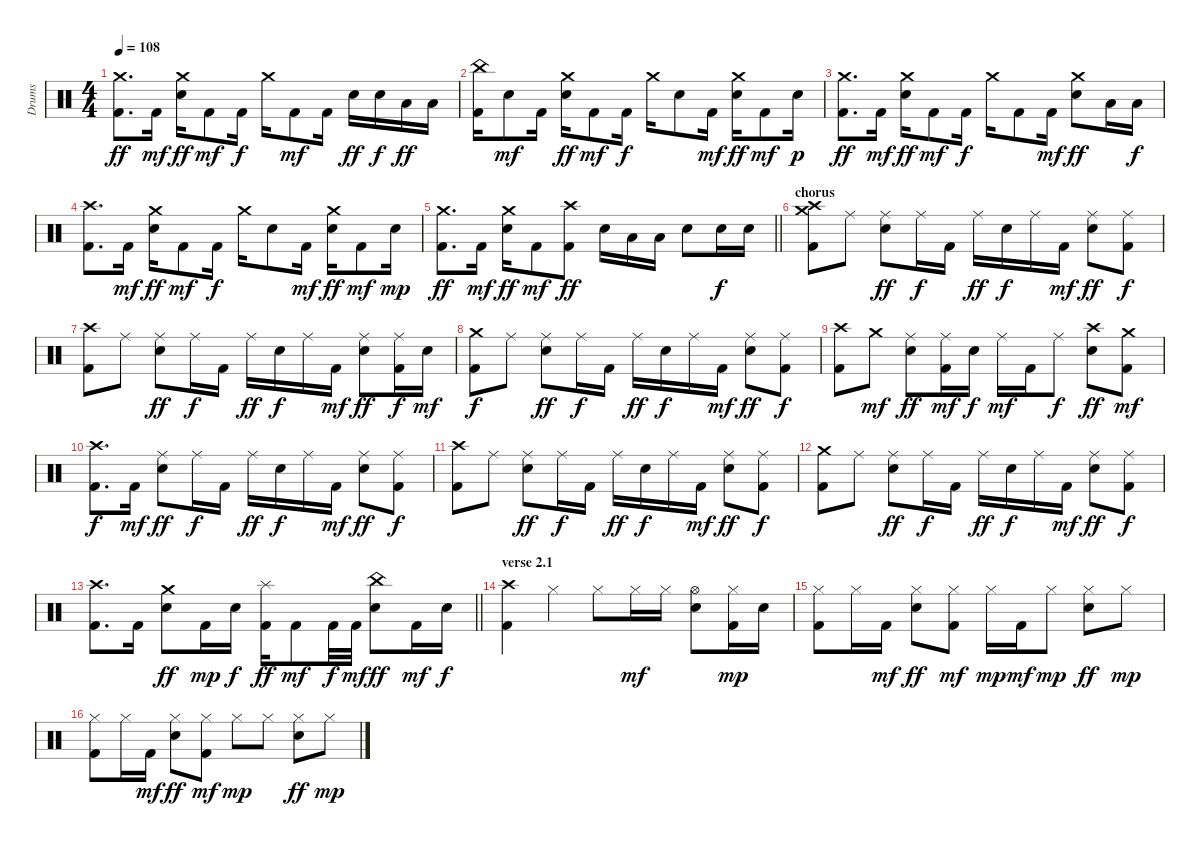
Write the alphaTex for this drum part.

\track ("Drums" "Drums") {instrument percussion}
\staff {score}
\articulation defaults
\ts (4 4)
\tempo 108
\clef neutral
\ks c
("Crash medium (hit)" "Kick (hit) 2").8{d dy ff} "Kick (hit) 2".16{dy mf} ("Crash medium (hit)" "Electric Snare (hit)").16{dy ff} "Kick (hit) 2".8{dy mf} "Kick (hit) 2".16{dy f} "Crash medium (hit)".16 "Kick (hit) 2".8{dy mf} "Kick (hit) 2".16 "Electric Snare (hit)".16{dy ff} "Electric Snare (hit)".16{dy f} "Low Tom (hit)".16{dy ff} "Low Tom (hit)".16 |
("China (hit)" "Kick (hit) 2").16 "Electric Snare (hit)".8{dy mf} "Kick (hit) 2".16 ("Crash medium (hit)" "Electric Snare (hit)").16{dy ff} "Kick (hit) 2".8{dy mf} "Kick (hit) 2".16{dy f} "Crash medium (hit)".16 "Electric Snare (hit)".8 "Kick (hit) 2".16{dy mf} ("Crash medium (hit)" "Electric Snare (hit)").16{dy ff} "Kick (hit) 2".8{dy mf} "Electric Snare (hit)".16{dy p} |
("Crash medium (hit)" "Kick (hit) 2").8{d dy ff} "Kick (hit) 2".16{dy mf} ("Crash medium (hit)" "Electric Snare (hit)").16{dy ff} "Kick (hit) 2".8{dy mf} "Kick (hit) 2".16{dy f} "Crash medium (hit)".16 "Kick (hit) 2".8 "Kick (hit) 2".16{dy mf} ("Crash medium (hit)" "Electric Snare (hit)").8{dy ff} "Low Tom (hit)".16 "Low Tom (hit)".16{dy f} |
("Crash high (hit)" "Kick (hit) 2").8{d} "Kick (hit) 2".16{dy mf} ("Crash medium (hit)" "Electric Snare (hit)").16{dy ff} "Kick (hit) 2".8{dy mf} "Kick (hit) 2".16{dy f} "Crash medium (hit)".16 "Electric Snare (hit)".8 "Kick (hit) 2".16{dy mf} ("Crash medium (hit)" "Electric Snare (hit)").16{dy ff} "Kick (hit) 2".8{dy mf} "Electric Snare (hit)".16{dy mp} |
\barLineRight lightlight
("Crash medium (hit)" "Kick (hit) 2").8{d dy ff} "Kick (hit) 2".16{dy mf} ("Crash medium (hit)" "Electric Snare (hit)").16{dy ff} "Kick (hit) 2".8{dy mf} ("Crash high (hit)" "Kick (hit) 2").8{dy ff} "Electric Snare (hit)".16 "Low Tom (hit)".16 "Low Tom (hit)".16 "Electric Snare (hit)".8 "Electric Snare (hit)".16{dy f} "Electric Snare (hit)".16 |
\section ("" "chorus")
("Crash medium (hit)" "Crash high (hit)" "Kick (hit) 2").8 "Ride (middle)".8 ("Ride (middle)" "Electric Snare (hit)").8{dy ff} "Ride (middle)".16{dy f} "Kick (hit) 2".16 "Ride (middle)".16{dy ff} "Electric Snare (hit)".16{dy f} "Ride (middle)".16 "Kick (hit) 2".16{dy mf} ("Ride (middle)" "Electric Snare (hit)").8{dy ff} ("Ride (middle)" "Kick (hit) 2").8{dy f} |
("Crash high (hit)" "Kick (hit) 2").8 "Ride (middle)".8 ("Ride (middle)" "Electric Snare (hit)").8{dy ff} "Ride (middle)".16{dy f} "Kick (hit) 2".16 "Ride (middle)".16{dy ff} "Electric Snare (hit)".16{dy f} "Ride (middle)".16 "Kick (hit) 2".16{dy mf} ("Ride (middle)" "Electric Snare (hit)").8{dy ff} ("Ride (middle)" "Kick (hit) 2").16{dy f} "Electric Snare (hit)".16{dy mf} |
("Crash medium (hit)" "Kick (hit) 2").8{dy f} "Ride (middle)".8 ("Ride (middle)" "Electric Snare (hit)").8{dy ff} "Ride (middle)".16{dy f} "Kick (hit) 2".16 "Ride (middle)".16{dy ff} "Electric Snare (hit)".16{dy f} "Ride (middle)".16 "Kick (hit) 2".16{dy mf} ("Ride (middle)" "Electric Snare (hit)").8{dy ff} ("Ride (middle)" "Kick (hit) 2").8{dy f} |
("Crash high (hit)" "Kick (hit) 2").8 "Crash medium (hit)".8{dy mf} ("Ride (middle)" "Electric Snare (hit)").8{dy ff} ("Ride (middle)" "Kick (hit) 2").16{dy mf} "Electric Snare (hit)".16{dy f} "Ride (middle)".16{dy mf} "Kick (hit) 2".16 "Ride (middle)".8{dy f} ("Crash high (hit)" "Electric Snare (hit)").8{dy ff} ("Crash medium (hit)" "Kick (hit) 2").8{dy mf} |
("Crash high (hit)" "Kick (hit) 2").8{d dy f} "Kick (hit) 2".16{dy mf} ("Ride (middle)" "Electric Snare (hit)").8{dy ff} "Ride (middle)".16{dy f} "Kick (hit) 2".16 "Ride (middle)".16{dy ff} "Electric Snare (hit)".16{dy f} "Ride (middle)".16 "Kick (hit) 2".16{dy mf} ("Ride (middle)" "Electric Snare (hit)").8{dy ff} ("Ride (middle)" "Kick (hit) 2").8{dy f} |
("Crash high (hit)" "Kick (hit) 2").8 "Ride (middle)".8 ("Ride (middle)" "Electric Snare (hit)").8{dy ff} "Ride (middle)".16{dy f} "Kick (hit) 2".16 "Ride (middle)".16{dy ff} "Electric Snare (hit)".16{dy f} "Ride (middle)".16 "Kick (hit) 2".16{dy mf} ("Ride (middle)" "Electric Snare (hit)").8{dy ff} ("Ride (middle)" "Kick (hit) 2").8{dy f} |
("Crash medium (hit)" "Kick (hit) 2").8 "Ride (middle)".8 ("Ride (middle)" "Electric Snare (hit)").8{dy ff} "Ride (middle)".16{dy f} "Kick (hit) 2".16 "Ride (middle)".16{dy ff} "Electric Snare (hit)".16{dy f} "Ride (middle)".16 "Kick (hit) 2".16{dy mf} ("Ride (middle)" "Electric Snare (hit)").8{dy ff} ("Ride (middle)" "Kick (hit) 2").8{dy f} |
\barLineRight lightlight
("Crash high (hit)" "Kick (hit) 2").8{d} "Kick (hit) 2".16 ("Crash medium (hit)" "Electric Snare (hit)").8{dy ff} "Kick (hit) 2".16{dy mp} "Electric Snare (hit)".16{dy f} ("Splash (hit)" "Kick (hit) 2").16{dy ff} "Kick (hit) 2".8{dy mf} "Kick (hit) 2".32{dy f} "Kick (hit) 2".32{dy mf} ("China (hit)" "Electric Snare (hit)").8{dy ff} "Kick (hit) 2".16{dy mf} "Electric Snare (hit)".16{dy f} |
\section ("" "verse 2.1")
("Crash high (hit)" "Kick (hit) 2").4 "Hi-Hat (closed)".4 "Hi-Hat (closed)".8 "Hi-Hat (closed)".16{dy mf} "Hi-Hat (closed)".16 ("Hi-Hat (open)" "Electric Snare (hit)").8 ("Hi-Hat (closed)" "Kick (hit) 2").16{dy mp} "Electric Snare (hit)".16 |
("Hi-Hat (closed)" "Kick (hit) 2").8 "Hi-Hat (closed)".16 "Kick (hit) 2".16{dy mf} ("Hi-Hat (closed)" "Electric Snare (hit)").8{dy ff} ("Hi-Hat (closed)" "Kick (hit) 2").8{dy mf} "Hi-Hat (closed)".16{dy mp} "Kick (hit) 2".16{dy mf} "Hi-Hat (closed)".8{dy mp} ("Hi-Hat (closed)" "Electric Snare (hit)").8{dy ff} "Hi-Hat (closed)".8{dy mp} |
("Hi-Hat (closed)" "Kick (hit) 2").8 "Hi-Hat (closed)".16 "Kick (hit) 2".16{dy mf} ("Hi-Hat (closed)" "Electric Snare (hit)").8{dy ff} ("Hi-Hat (closed)" "Kick (hit) 2").8{dy mf} "Hi-Hat (closed)".8{dy mp} "Hi-Hat (closed)".8 ("Hi-Hat (closed)" "Electric Snare (hit)").8{dy ff} "Hi-Hat (closed)".8{dy mp}
